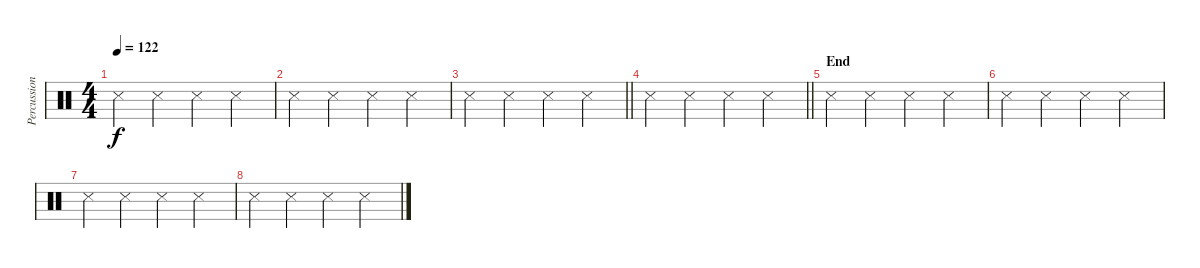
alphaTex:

\track ("Percussion" "Percussion") {instrument percussion}
\staff {score}
\articulation defaults
\ts (4 4)
\tempo 122
\clef neutral
\ks c "Snare (side stick) 3".4{dy f} "Metronome (hit)".4 "Metronome (hit)".4 "Metronome (hit)".4
|
"Snare (side stick) 3".4 "Metronome (hit)".4 "Metronome (hit)".4 "Metronome (hit)".4 |
\barLineRight lightlight "Snare (side stick) 3".4 "Metronome (hit)".4 "Metronome (hit)".4 "Metronome (hit)".4
|
\barLineRight lightlight "Snare (side stick) 3".4 "Metronome (hit)".4 "Metronome (hit)".4 "Metronome (hit)".4
|
\section ("" "End")
"Snare (side stick) 3".4 "Metronome (hit)".4 "Metronome (hit)".4 "Metronome (hit)".4 |
"Snare (side stick) 3".4 "Metronome (hit)".4 "Metronome (hit)".4 "Metronome (hit)".4 |
"Snare (side stick) 3".4 "Metronome (hit)".4 "Metronome (hit)".4 "Metronome (hit)".4 |
"Snare (side stick) 3".4 "Metronome (hit)".4 "Metronome (hit)".4 "Metronome (hit)".4
